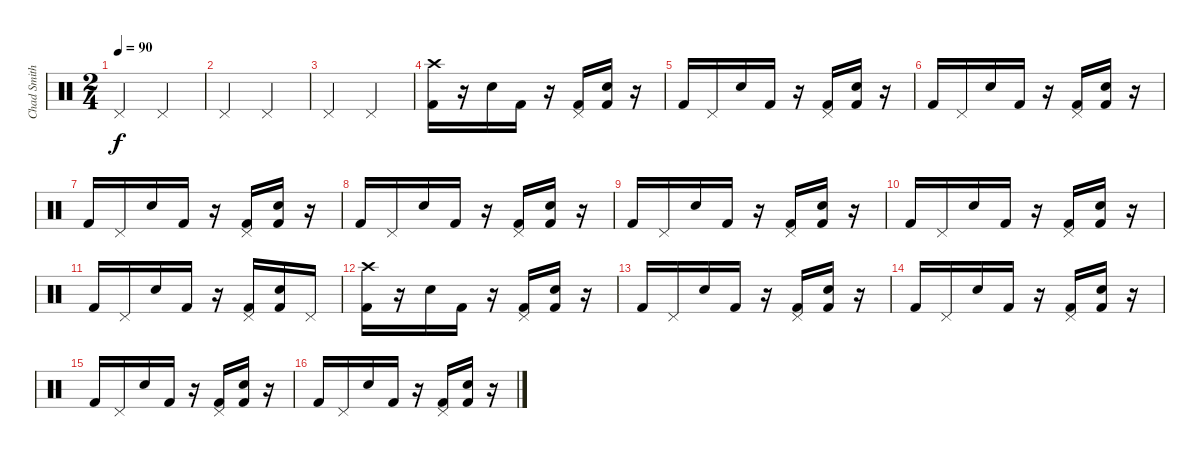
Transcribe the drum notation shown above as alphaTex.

\track ("Chad Smith" "Chad Smith") {instrument percussion}
\staff {score}
\articulation defaults
\ts (2 4)
\tempo 90
\clef neutral
\ks c "Pedal Hi-Hat (hit)".4{dy f} "Pedal Hi-Hat (hit)".4
|
"Pedal Hi-Hat (hit)".4 "Pedal Hi-Hat (hit)".4 |
"Pedal Hi-Hat (hit)".4 "Pedal Hi-Hat (hit)".4 |
("Crash high (hit)" "Kick (hit) 2").16 r.16 "Electric Snare (hit)".16 "Kick (hit) 2".16 r.16 ("Pedal Hi-Hat (hit)" "Kick (hit) 2").16 ("Electric Snare (hit)" "Kick (hit) 2").16 r.16 |
"Kick (hit) 2".16 "Pedal Hi-Hat (hit)".16 "Electric Snare (hit)".16 "Kick (hit) 2".16 r.16 ("Pedal Hi-Hat (hit)" "Kick (hit) 2").16 ("Electric Snare (hit)" "Kick (hit) 2").16 r.16 |
"Kick (hit) 2".16 "Pedal Hi-Hat (hit)".16 "Electric Snare (hit)".16 "Kick (hit) 2".16 r.16 ("Pedal Hi-Hat (hit)" "Kick (hit) 2").16 ("Electric Snare (hit)" "Kick (hit) 2").16 r.16 |
"Kick (hit) 2".16 "Pedal Hi-Hat (hit)".16 "Electric Snare (hit)".16 "Kick (hit) 2".16 r.16 ("Pedal Hi-Hat (hit)" "Kick (hit) 2").16 ("Electric Snare (hit)" "Kick (hit) 2").16 r.16 |
"Kick (hit) 2".16 "Pedal Hi-Hat (hit)".16 "Electric Snare (hit)".16 "Kick (hit) 2".16 r.16 ("Pedal Hi-Hat (hit)" "Kick (hit) 2").16 ("Electric Snare (hit)" "Kick (hit) 2").16 r.16 |
"Kick (hit) 2".16 "Pedal Hi-Hat (hit)".16 "Electric Snare (hit)".16 "Kick (hit) 2".16 r.16 ("Pedal Hi-Hat (hit)" "Kick (hit) 2").16 ("Electric Snare (hit)" "Kick (hit) 2").16 r.16 |
"Kick (hit) 2".16 "Pedal Hi-Hat (hit)".16 "Electric Snare (hit)".16 "Kick (hit) 2".16 r.16 ("Pedal Hi-Hat (hit)" "Kick (hit) 2").16 ("Electric Snare (hit)" "Kick (hit) 2").16 r.16 |
"Kick (hit) 2".16 "Pedal Hi-Hat (hit)".16 "Electric Snare (hit)".16 "Kick (hit) 2".16 r.16 ("Pedal Hi-Hat (hit)" "Kick (hit) 2").16 ("Electric Snare (hit)" "Kick (hit) 2").16 "Pedal Hi-Hat (hit)".16 |
("Crash high (hit)" "Kick (hit) 2").16 r.16 "Electric Snare (hit)".16 "Kick (hit) 2".16 r.16 ("Pedal Hi-Hat (hit)" "Kick (hit) 2").16 ("Electric Snare (hit)" "Kick (hit) 2").16 r.16 |
"Kick (hit) 2".16 "Pedal Hi-Hat (hit)".16 "Electric Snare (hit)".16 "Kick (hit) 2".16 r.16 ("Pedal Hi-Hat (hit)" "Kick (hit) 2").16 ("Electric Snare (hit)" "Kick (hit) 2").16 r.16 |
"Kick (hit) 2".16 "Pedal Hi-Hat (hit)".16 "Electric Snare (hit)".16 "Kick (hit) 2".16 r.16 ("Pedal Hi-Hat (hit)" "Kick (hit) 2").16 ("Electric Snare (hit)" "Kick (hit) 2").16 r.16 |
"Kick (hit) 2".16 "Pedal Hi-Hat (hit)".16 "Electric Snare (hit)".16 "Kick (hit) 2".16 r.16 ("Pedal Hi-Hat (hit)" "Kick (hit) 2").16 ("Electric Snare (hit)" "Kick (hit) 2").16 r.16 |
"Kick (hit) 2".16 "Pedal Hi-Hat (hit)".16 "Electric Snare (hit)".16 "Kick (hit) 2".16 r.16 ("Pedal Hi-Hat (hit)" "Kick (hit) 2").16 ("Electric Snare (hit)" "Kick (hit) 2").16 r.16
